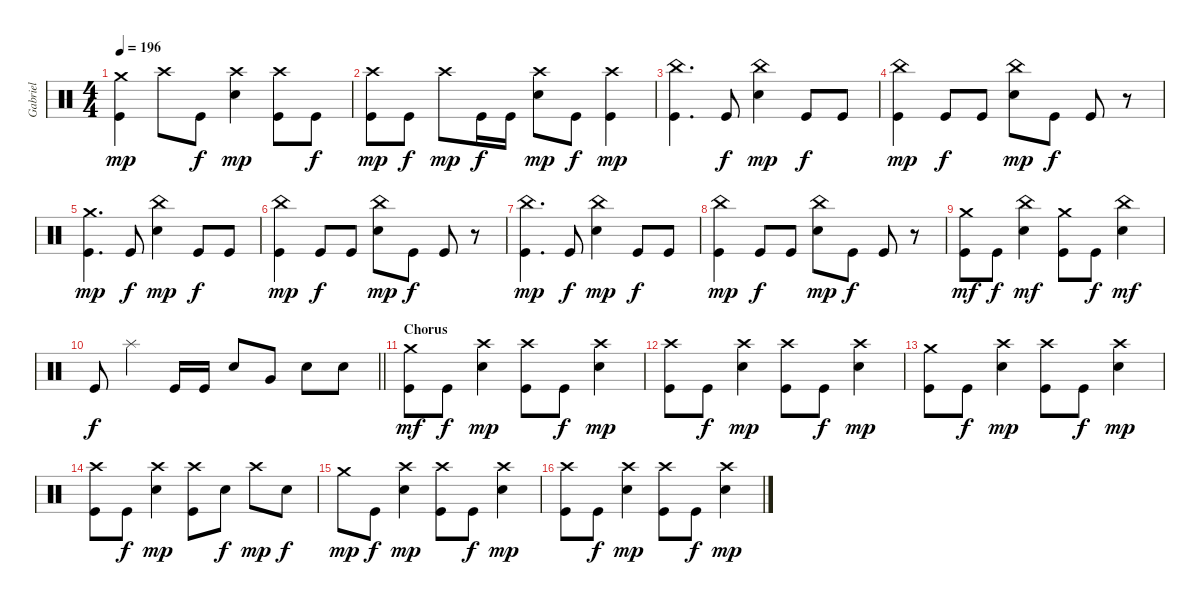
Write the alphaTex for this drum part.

\track ("Gabriel" "Gabriel") {instrument percussion}
\staff {score}
\articulation defaults
\ts (4 4)
\tempo 196
\clef neutral
\ks aminor
("Crash medium (hit)" "Kick (hit)").4{dy mp} "Crash high (hit)".8 "Kick (hit)".8{dy f} ("Crash high (hit)" "Snare (hit) 2").4{dy mp} ("Crash high (hit)" "Kick (hit)").8 "Kick (hit)".8{dy f} |
("Crash high (hit)" "Kick (hit)").8{dy mp} "Kick (hit)".8{dy f} "Crash high (hit)".8{dy mp} "Kick (hit)".16{dy f} "Kick (hit)".16 ("Crash high (hit)" "Snare (hit) 2").8{dy mp} "Kick (hit)".8{dy f} ("Crash high (hit)" "Kick (hit)").4{dy mp} |
("China (hit)" "Kick (hit)").4{d} "Kick (hit)".8{dy f} ("China (hit)" "Snare (hit) 2").4{dy mp} "Kick (hit)".8{dy f} "Kick (hit)".8 |
("China (hit)" "Kick (hit)").4{dy mp} "Kick (hit)".8{dy f} "Kick (hit)".8 ("China (hit)" "Snare (hit) 2").8{dy mp} "Kick (hit)".8{dy f} "Kick (hit)".8 r.8 |
("Crash medium (hit)" "Kick (hit)").4{d dy mp} "Kick (hit)".8{dy f} ("China (hit)" "Snare (hit) 2").4{dy mp} "Kick (hit)".8{dy f} "Kick (hit)".8 |
("China (hit)" "Kick (hit)").4{dy mp} "Kick (hit)".8{dy f} "Kick (hit)".8 ("China (hit)" "Snare (hit) 2").8{dy mp} "Kick (hit)".8{dy f} "Kick (hit)".8 r.8 |
("China (hit)" "Kick (hit)").4{d dy mp} "Kick (hit)".8{dy f} ("China (hit)" "Snare (hit) 2").4{dy mp} "Kick (hit)".8{dy f} "Kick (hit)".8 |
("China (hit)" "Kick (hit)").4{dy mp} "Kick (hit)".8{dy f} "Kick (hit)".8 ("China (hit)" "Snare (hit) 2").8{dy mp} "Kick (hit)".8{dy f} "Kick (hit)".8 r.8 |
("Crash medium (hit)" "Kick (hit)").8{dy mf} "Kick (hit)".8{dy f} ("China (hit)" "Snare (hit) 2").4{dy mf} ("Crash medium (hit)" "Kick (hit)").8 "Kick (hit)".8{dy f} ("China (hit)" "Snare (hit) 2").4{dy mf} |
\barLineRight lightlight "Kick (hit)".8{dy f} "Splash (hit)".4 "Kick (hit)".16 "Kick (hit)".16 "Snare (hit) 2".8 "Very Low Tom (hit)".8 "Snare (hit) 2".8 "Snare (hit) 2".8
|
\section ("" "Chorus")
("Crash medium (hit)" "Kick (hit)").8{dy mf} "Kick (hit)".8{dy f} ("Crash high (hit)" "Snare (hit) 2").4{dy mp} ("Crash high (hit)" "Kick (hit)").8 "Kick (hit)".8{dy f} ("Crash high (hit)" "Snare (hit) 2").4{dy mp} |
("Crash high (hit)" "Kick (hit)").8 "Kick (hit)".8{dy f} ("Crash high (hit)" "Snare (hit) 2").4{dy mp} ("Crash high (hit)" "Kick (hit)").8 "Kick (hit)".8{dy f} ("Crash high (hit)" "Snare (hit) 2").4{dy mp} |
("Crash medium (hit)" "Kick (hit)").8 "Kick (hit)".8{dy f} ("Crash high (hit)" "Snare (hit) 2").4{dy mp} ("Crash high (hit)" "Kick (hit)").8 "Kick (hit)".8{dy f} ("Crash high (hit)" "Snare (hit) 2").4{dy mp} |
("Crash high (hit)" "Kick (hit)").8 "Kick (hit)".8{dy f} ("Crash high (hit)" "Snare (hit) 2").4{dy mp} ("Crash high (hit)" "Kick (hit)").8 "Snare (hit) 2".8{dy f} "Crash high (hit)".8{dy mp} "Snare (hit) 2".8{dy f} |
"Crash medium (hit)".8{dy mp} "Kick (hit)".8{dy f} ("Crash high (hit)" "Snare (hit) 2").4{dy mp} ("Crash high (hit)" "Kick (hit)").8 "Kick (hit)".8{dy f} ("Crash high (hit)" "Snare (hit) 2").4{dy mp} |
("Crash high (hit)" "Kick (hit)").8 "Kick (hit)".8{dy f} ("Crash high (hit)" "Snare (hit) 2").4{dy mp} ("Crash high (hit)" "Kick (hit)").8 "Kick (hit)".8{dy f} ("Crash high (hit)" "Snare (hit) 2").4{dy mp}
